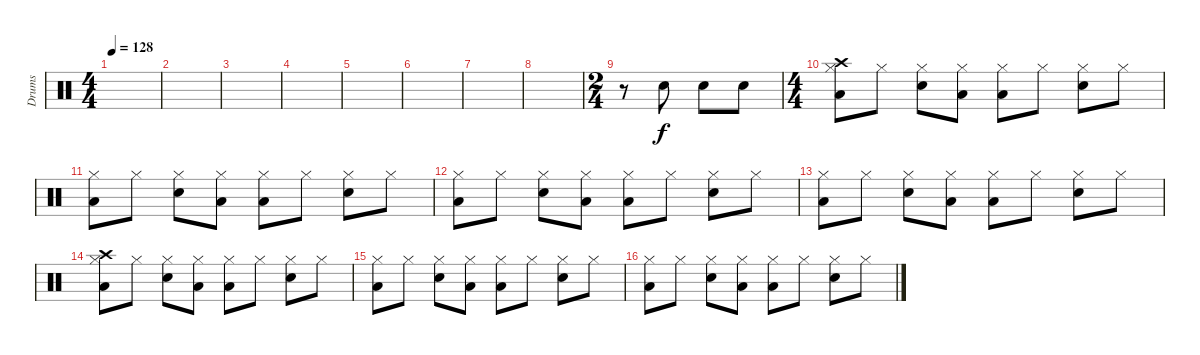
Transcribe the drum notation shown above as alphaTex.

\track ("Drums" "Drums") {instrument percussion}
\staff {score}
\articulation defaults
\ts (4 4)
\tempo 128
\clef neutral
\ks c
|
|
|
|
|
|
|
|
\ts (2 4)
r.8 "Snare (hit) 2".8 "Snare (hit) 2".8 "Snare (hit) 2".8 |
\ts (4 4)
("Hi-Hat (closed)" "Low Tom (hit)" "Crash high (hit)").8 "Hi-Hat (closed)".8 ("Hi-Hat (closed)" "Snare (hit) 2").8 ("Hi-Hat (closed)" "Low Tom (hit)").8 ("Hi-Hat (closed)" "Low Tom (hit)").8 "Hi-Hat (closed)".8 ("Hi-Hat (closed)" "Snare (hit) 2").8 "Hi-Hat (closed)".8 |
("Hi-Hat (closed)" "Low Tom (hit)").8 "Hi-Hat (closed)".8 ("Hi-Hat (closed)" "Snare (hit) 2").8 ("Hi-Hat (closed)" "Low Tom (hit)").8 ("Hi-Hat (closed)" "Low Tom (hit)").8 "Hi-Hat (closed)".8 ("Hi-Hat (closed)" "Snare (hit) 2").8 "Hi-Hat (closed)".8 |
("Hi-Hat (closed)" "Low Tom (hit)").8 "Hi-Hat (closed)".8 ("Hi-Hat (closed)" "Snare (hit) 2").8 ("Hi-Hat (closed)" "Low Tom (hit)").8 ("Hi-Hat (closed)" "Low Tom (hit)").8 "Hi-Hat (closed)".8 ("Hi-Hat (closed)" "Snare (hit) 2").8 "Hi-Hat (closed)".8 |
("Hi-Hat (closed)" "Low Tom (hit)").8 "Hi-Hat (closed)".8 ("Hi-Hat (closed)" "Snare (hit) 2").8 ("Hi-Hat (closed)" "Low Tom (hit)").8 ("Hi-Hat (closed)" "Low Tom (hit)").8 "Hi-Hat (closed)".8 ("Hi-Hat (closed)" "Snare (hit) 2").8 "Hi-Hat (closed)".8 |
("Hi-Hat (closed)" "Low Tom (hit)" "Crash high (hit)").8 "Hi-Hat (closed)".8 ("Hi-Hat (closed)" "Snare (hit) 2").8 ("Hi-Hat (closed)" "Low Tom (hit)").8 ("Hi-Hat (closed)" "Low Tom (hit)").8 "Hi-Hat (closed)".8 ("Hi-Hat (closed)" "Snare (hit) 2").8 "Hi-Hat (closed)".8 |
("Hi-Hat (closed)" "Low Tom (hit)").8 "Hi-Hat (closed)".8 ("Hi-Hat (closed)" "Snare (hit) 2").8 ("Hi-Hat (closed)" "Low Tom (hit)").8 ("Hi-Hat (closed)" "Low Tom (hit)").8 "Hi-Hat (closed)".8 ("Hi-Hat (closed)" "Snare (hit) 2").8 "Hi-Hat (closed)".8 |
("Hi-Hat (closed)" "Low Tom (hit)").8 "Hi-Hat (closed)".8 ("Hi-Hat (closed)" "Snare (hit) 2").8 ("Hi-Hat (closed)" "Low Tom (hit)").8 ("Hi-Hat (closed)" "Low Tom (hit)").8 "Hi-Hat (closed)".8 ("Hi-Hat (closed)" "Snare (hit) 2").8 "Hi-Hat (closed)".8
